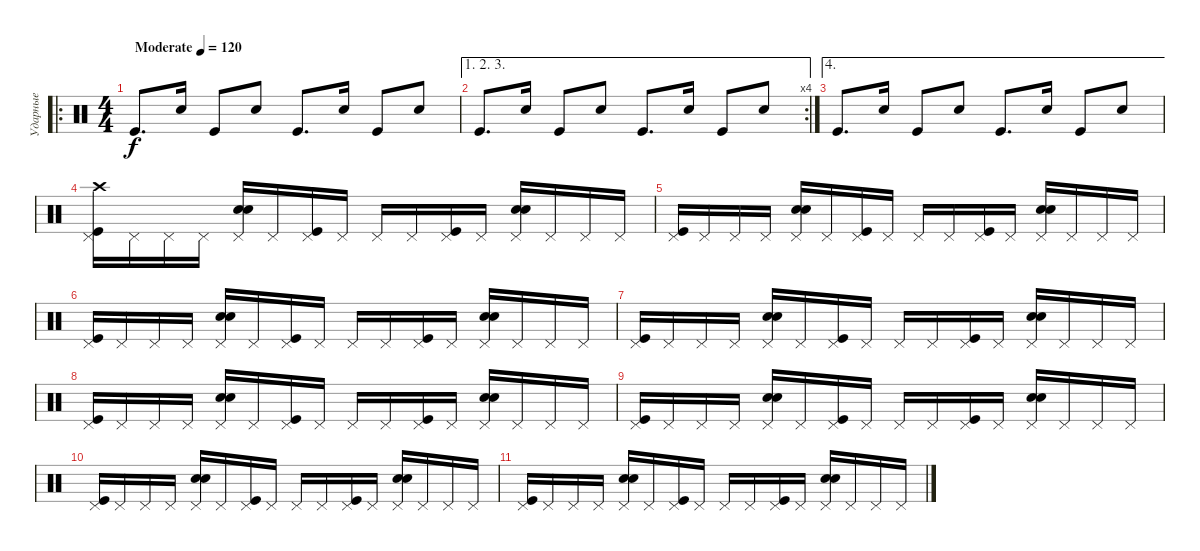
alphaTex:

\track ("Ударные" "Ударные") {instrument percussion}
\staff {score}
\articulation defaults
\ro
\ts (4 4)
\tempo (120 "Moderate")
\clef neutral
\ks c "Kick (hit)".8{d dy f} "Hand Clap (hit)".16 "Kick (hit)".8 "Hand Clap (hit)".8 "Kick (hit)".8{d} "Hand Clap (hit)".16 "Kick (hit)".8 "Hand Clap (hit)".8
|
\ae (1 2 3)
\rc 4 "Kick (hit)".8{d} "Hand Clap (hit)".16 "Kick (hit)".8 "Hand Clap (hit)".8 "Kick (hit)".8{d} "Hand Clap (hit)".16 "Kick (hit)".8 "Hand Clap (hit)".8
|
\ae 4 "Kick (hit)".8{d} "Hand Clap (hit)".16 "Kick (hit)".8 "Hand Clap (hit)".8 "Kick (hit)".8{d} "Hand Clap (hit)".16 "Kick (hit)".8 "Hand Clap (hit)".8
|
("Kick (hit)" "Pedal Hi-Hat (hit)" "Crash high (hit)").16 "Pedal Hi-Hat (hit)".16 "Pedal Hi-Hat (hit)".16 "Pedal Hi-Hat (hit)".16 ("Pedal Hi-Hat (hit)" "Electric Snare (hit)" "Hand Clap (hit)").16 "Pedal Hi-Hat (hit)".16 ("Kick (hit)" "Pedal Hi-Hat (hit)").16 "Pedal Hi-Hat (hit)".16 "Pedal Hi-Hat (hit)".16 "Pedal Hi-Hat (hit)".16 ("Kick (hit)" "Pedal Hi-Hat (hit)").16 "Pedal Hi-Hat (hit)".16 ("Pedal Hi-Hat (hit)" "Electric Snare (hit)" "Hand Clap (hit)").16 "Pedal Hi-Hat (hit)".16 "Pedal Hi-Hat (hit)".16 "Pedal Hi-Hat (hit)".16 |
("Kick (hit)" "Pedal Hi-Hat (hit)").16 "Pedal Hi-Hat (hit)".16 "Pedal Hi-Hat (hit)".16 "Pedal Hi-Hat (hit)".16 ("Pedal Hi-Hat (hit)" "Electric Snare (hit)" "Hand Clap (hit)").16 "Pedal Hi-Hat (hit)".16 ("Kick (hit)" "Pedal Hi-Hat (hit)").16 "Pedal Hi-Hat (hit)".16 "Pedal Hi-Hat (hit)".16 "Pedal Hi-Hat (hit)".16 ("Kick (hit)" "Pedal Hi-Hat (hit)").16 "Pedal Hi-Hat (hit)".16 ("Pedal Hi-Hat (hit)" "Electric Snare (hit)" "Hand Clap (hit)").16 "Pedal Hi-Hat (hit)".16 "Pedal Hi-Hat (hit)".16 "Pedal Hi-Hat (hit)".16 |
("Kick (hit)" "Pedal Hi-Hat (hit)").16 "Pedal Hi-Hat (hit)".16 "Pedal Hi-Hat (hit)".16 "Pedal Hi-Hat (hit)".16 ("Pedal Hi-Hat (hit)" "Electric Snare (hit)" "Hand Clap (hit)").16 "Pedal Hi-Hat (hit)".16 ("Kick (hit)" "Pedal Hi-Hat (hit)").16 "Pedal Hi-Hat (hit)".16 "Pedal Hi-Hat (hit)".16 "Pedal Hi-Hat (hit)".16 ("Kick (hit)" "Pedal Hi-Hat (hit)").16 "Pedal Hi-Hat (hit)".16 ("Pedal Hi-Hat (hit)" "Electric Snare (hit)" "Hand Clap (hit)").16 "Pedal Hi-Hat (hit)".16 "Pedal Hi-Hat (hit)".16 "Pedal Hi-Hat (hit)".16 |
("Kick (hit)" "Pedal Hi-Hat (hit)").16 "Pedal Hi-Hat (hit)".16 "Pedal Hi-Hat (hit)".16 "Pedal Hi-Hat (hit)".16 ("Pedal Hi-Hat (hit)" "Electric Snare (hit)" "Hand Clap (hit)").16 "Pedal Hi-Hat (hit)".16 ("Kick (hit)" "Pedal Hi-Hat (hit)").16 "Pedal Hi-Hat (hit)".16 "Pedal Hi-Hat (hit)".16 "Pedal Hi-Hat (hit)".16 ("Kick (hit)" "Pedal Hi-Hat (hit)").16 "Pedal Hi-Hat (hit)".16 ("Pedal Hi-Hat (hit)" "Electric Snare (hit)" "Hand Clap (hit)").16 "Pedal Hi-Hat (hit)".16 "Pedal Hi-Hat (hit)".16 "Pedal Hi-Hat (hit)".16 |
("Kick (hit)" "Pedal Hi-Hat (hit)").16 "Pedal Hi-Hat (hit)".16 "Pedal Hi-Hat (hit)".16 "Pedal Hi-Hat (hit)".16 ("Pedal Hi-Hat (hit)" "Electric Snare (hit)" "Hand Clap (hit)").16 "Pedal Hi-Hat (hit)".16 ("Kick (hit)" "Pedal Hi-Hat (hit)").16 "Pedal Hi-Hat (hit)".16 "Pedal Hi-Hat (hit)".16 "Pedal Hi-Hat (hit)".16 ("Kick (hit)" "Pedal Hi-Hat (hit)").16 "Pedal Hi-Hat (hit)".16 ("Pedal Hi-Hat (hit)" "Electric Snare (hit)" "Hand Clap (hit)").16 "Pedal Hi-Hat (hit)".16 "Pedal Hi-Hat (hit)".16 "Pedal Hi-Hat (hit)".16 |
("Kick (hit)" "Pedal Hi-Hat (hit)").16 "Pedal Hi-Hat (hit)".16 "Pedal Hi-Hat (hit)".16 "Pedal Hi-Hat (hit)".16 ("Pedal Hi-Hat (hit)" "Electric Snare (hit)" "Hand Clap (hit)").16 "Pedal Hi-Hat (hit)".16 ("Kick (hit)" "Pedal Hi-Hat (hit)").16 "Pedal Hi-Hat (hit)".16 "Pedal Hi-Hat (hit)".16 "Pedal Hi-Hat (hit)".16 ("Kick (hit)" "Pedal Hi-Hat (hit)").16 "Pedal Hi-Hat (hit)".16 ("Pedal Hi-Hat (hit)" "Electric Snare (hit)" "Hand Clap (hit)").16 "Pedal Hi-Hat (hit)".16 "Pedal Hi-Hat (hit)".16 "Pedal Hi-Hat (hit)".16 |
("Kick (hit)" "Pedal Hi-Hat (hit)").16 "Pedal Hi-Hat (hit)".16 "Pedal Hi-Hat (hit)".16 "Pedal Hi-Hat (hit)".16 ("Pedal Hi-Hat (hit)" "Electric Snare (hit)" "Hand Clap (hit)").16 "Pedal Hi-Hat (hit)".16 ("Kick (hit)" "Pedal Hi-Hat (hit)").16 "Pedal Hi-Hat (hit)".16 "Pedal Hi-Hat (hit)".16 "Pedal Hi-Hat (hit)".16 ("Kick (hit)" "Pedal Hi-Hat (hit)").16 "Pedal Hi-Hat (hit)".16 ("Pedal Hi-Hat (hit)" "Electric Snare (hit)" "Hand Clap (hit)").16 "Pedal Hi-Hat (hit)".16 "Pedal Hi-Hat (hit)".16 "Pedal Hi-Hat (hit)".16 |
("Kick (hit)" "Pedal Hi-Hat (hit)").16 "Pedal Hi-Hat (hit)".16 "Pedal Hi-Hat (hit)".16 "Pedal Hi-Hat (hit)".16 ("Pedal Hi-Hat (hit)" "Electric Snare (hit)" "Hand Clap (hit)").16 "Pedal Hi-Hat (hit)".16 ("Kick (hit)" "Pedal Hi-Hat (hit)").16 "Pedal Hi-Hat (hit)".16 "Pedal Hi-Hat (hit)".16 "Pedal Hi-Hat (hit)".16 ("Kick (hit)" "Pedal Hi-Hat (hit)").16 "Pedal Hi-Hat (hit)".16 ("Pedal Hi-Hat (hit)" "Electric Snare (hit)" "Hand Clap (hit)").16 "Pedal Hi-Hat (hit)".16 "Pedal Hi-Hat (hit)".16 "Pedal Hi-Hat (hit)".16
